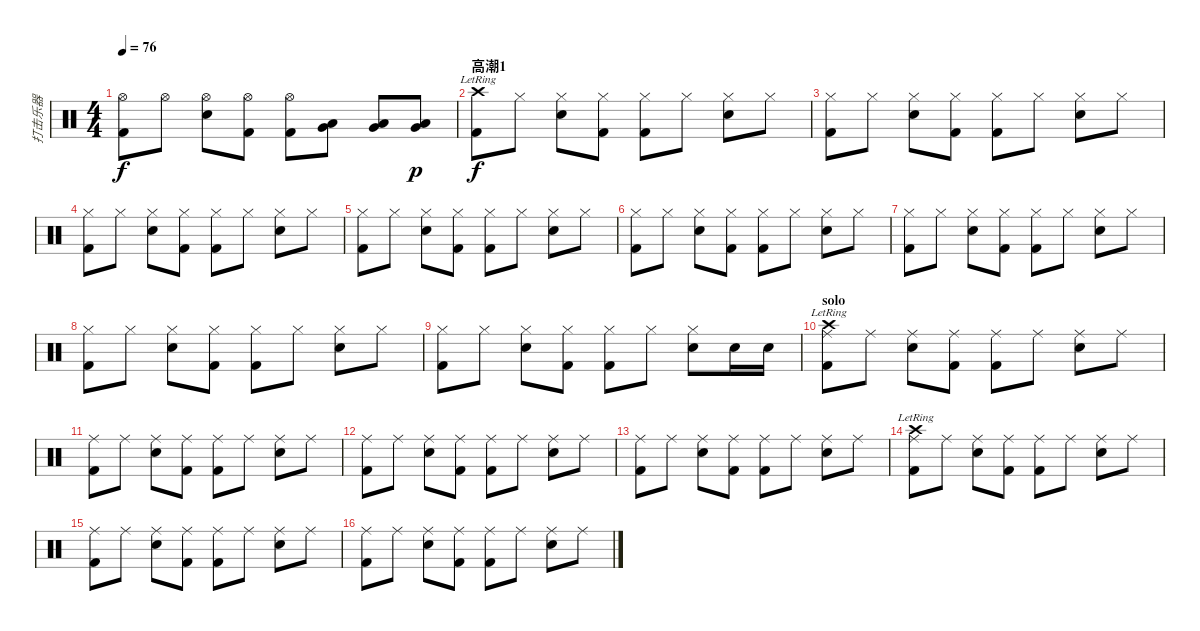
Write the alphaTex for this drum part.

\track ("打击乐器" "打击乐器") {instrument percussion}
\staff {score}
\articulation defaults
\ts (4 4)
\tempo 76
\clef neutral
\ks c
("Hi-Hat (open)" "Kick (hit) 2").8{dy f} "Hi-Hat (open)".8 ("Hi-Hat (open)" "Snare (hit) 2").8 ("Hi-Hat (open)" "Kick (hit) 2").8 ("Hi-Hat (open)" "Kick (hit) 2").8 ("Low Tom (hit)" "Very Low Tom (hit)").8 ("Low Tom (hit)" "Very Low Tom (hit)").8 ("Very Low Tom (hit)" "Low Floor Tom (hit)").8{dy p} |
\section ("" "高潮1")
("Crash high (hit)"{lr} "Kick (hit) 2").8{dy f} "Hi-Hat (closed)".8 ("Hi-Hat (closed)" "Snare (hit) 2").8 ("Hi-Hat (closed)" "Kick (hit) 2").8 ("Hi-Hat (closed)" "Kick (hit) 2").8 "Hi-Hat (closed)".8 ("Hi-Hat (closed)" "Snare (hit) 2").8 "Hi-Hat (closed)".8 |
("Hi-Hat (closed)" "Kick (hit) 2").8 "Hi-Hat (closed)".8 ("Hi-Hat (closed)" "Snare (hit) 2").8 ("Hi-Hat (closed)" "Kick (hit) 2").8 ("Hi-Hat (closed)" "Kick (hit) 2").8 "Hi-Hat (closed)".8 ("Hi-Hat (closed)" "Snare (hit) 2").8 "Hi-Hat (closed)".8 |
("Hi-Hat (closed)" "Kick (hit) 2").8 "Hi-Hat (closed)".8 ("Hi-Hat (closed)" "Snare (hit) 2").8 ("Hi-Hat (closed)" "Kick (hit) 2").8 ("Hi-Hat (closed)" "Kick (hit) 2").8 "Hi-Hat (closed)".8 ("Hi-Hat (closed)" "Snare (hit) 2").8 "Hi-Hat (closed)".8 |
("Hi-Hat (closed)" "Kick (hit) 2").8 "Hi-Hat (closed)".8 ("Hi-Hat (closed)" "Snare (hit) 2").8 ("Hi-Hat (closed)" "Kick (hit) 2").8 ("Hi-Hat (closed)" "Kick (hit) 2").8 "Hi-Hat (closed)".8 ("Hi-Hat (closed)" "Snare (hit) 2").8 "Hi-Hat (closed)".8 |
("Hi-Hat (closed)" "Kick (hit) 2").8 "Hi-Hat (closed)".8 ("Hi-Hat (closed)" "Snare (hit) 2").8 ("Hi-Hat (closed)" "Kick (hit) 2").8 ("Hi-Hat (closed)" "Kick (hit) 2").8 "Hi-Hat (closed)".8 ("Hi-Hat (closed)" "Snare (hit) 2").8 "Hi-Hat (closed)".8 |
("Hi-Hat (closed)" "Kick (hit) 2").8 "Hi-Hat (closed)".8 ("Hi-Hat (closed)" "Snare (hit) 2").8 ("Hi-Hat (closed)" "Kick (hit) 2").8 ("Hi-Hat (closed)" "Kick (hit) 2").8 "Hi-Hat (closed)".8 ("Hi-Hat (closed)" "Snare (hit) 2").8 "Hi-Hat (closed)".8 |
("Hi-Hat (closed)" "Kick (hit) 2").8 "Hi-Hat (closed)".8 ("Hi-Hat (closed)" "Snare (hit) 2").8 ("Hi-Hat (closed)" "Kick (hit) 2").8 ("Hi-Hat (closed)" "Kick (hit) 2").8 "Hi-Hat (closed)".8 ("Hi-Hat (closed)" "Snare (hit) 2").8 "Hi-Hat (closed)".8 |
("Hi-Hat (closed)" "Kick (hit) 2").8 "Hi-Hat (closed)".8 ("Hi-Hat (closed)" "Snare (hit) 2").8 ("Hi-Hat (closed)" "Kick (hit) 2").8 ("Hi-Hat (closed)" "Kick (hit) 2").8 "Hi-Hat (closed)".8 ("Hi-Hat (closed)" "Snare (hit) 2").8 "Snare (hit) 2".16 "Snare (hit) 2".16 |
\section ("" "solo")
("Crash high (hit)"{lr} "Ride (middle)" "Kick (hit) 2").8 "Ride (middle)".8 ("Ride (middle)" "Snare (hit) 2").8 ("Ride (middle)" "Kick (hit) 2").8 ("Ride (middle)" "Kick (hit) 2").8 "Ride (middle)".8 ("Ride (middle)" "Snare (hit) 2").8 "Ride (middle)".8 |
("Ride (middle)" "Kick (hit) 2").8 "Ride (middle)".8 ("Ride (middle)" "Snare (hit) 2").8 ("Ride (middle)" "Kick (hit) 2").8 ("Ride (middle)" "Kick (hit) 2").8 "Ride (middle)".8 ("Ride (middle)" "Snare (hit) 2").8 "Ride (middle)".8 |
("Ride (middle)" "Kick (hit) 2").8 "Ride (middle)".8 ("Ride (middle)" "Snare (hit) 2").8 ("Ride (middle)" "Kick (hit) 2").8 ("Ride (middle)" "Kick (hit) 2").8 "Ride (middle)".8 ("Ride (middle)" "Snare (hit) 2").8 "Ride (middle)".8 |
("Ride (middle)" "Kick (hit) 2").8 "Ride (middle)".8 ("Ride (middle)" "Snare (hit) 2").8 ("Ride (middle)" "Kick (hit) 2").8 ("Ride (middle)" "Kick (hit) 2").8 "Ride (middle)".8 ("Ride (middle)" "Snare (hit) 2").8 "Ride (middle)".8 |
("Crash high (hit)"{lr} "Ride (middle)" "Kick (hit) 2").8 "Ride (middle)".8 ("Ride (middle)" "Snare (hit) 2").8 ("Ride (middle)" "Kick (hit) 2").8 ("Ride (middle)" "Kick (hit) 2").8 "Ride (middle)".8 ("Ride (middle)" "Snare (hit) 2").8 "Ride (middle)".8 |
("Ride (middle)" "Kick (hit) 2").8 "Ride (middle)".8 ("Ride (middle)" "Snare (hit) 2").8 ("Ride (middle)" "Kick (hit) 2").8 ("Ride (middle)" "Kick (hit) 2").8 "Ride (middle)".8 ("Ride (middle)" "Snare (hit) 2").8 "Ride (middle)".8 |
("Ride (middle)" "Kick (hit) 2").8 "Ride (middle)".8 ("Ride (middle)" "Snare (hit) 2").8 ("Ride (middle)" "Kick (hit) 2").8 ("Ride (middle)" "Kick (hit) 2").8 "Ride (middle)".8 ("Ride (middle)" "Snare (hit) 2").8 "Ride (middle)".8
